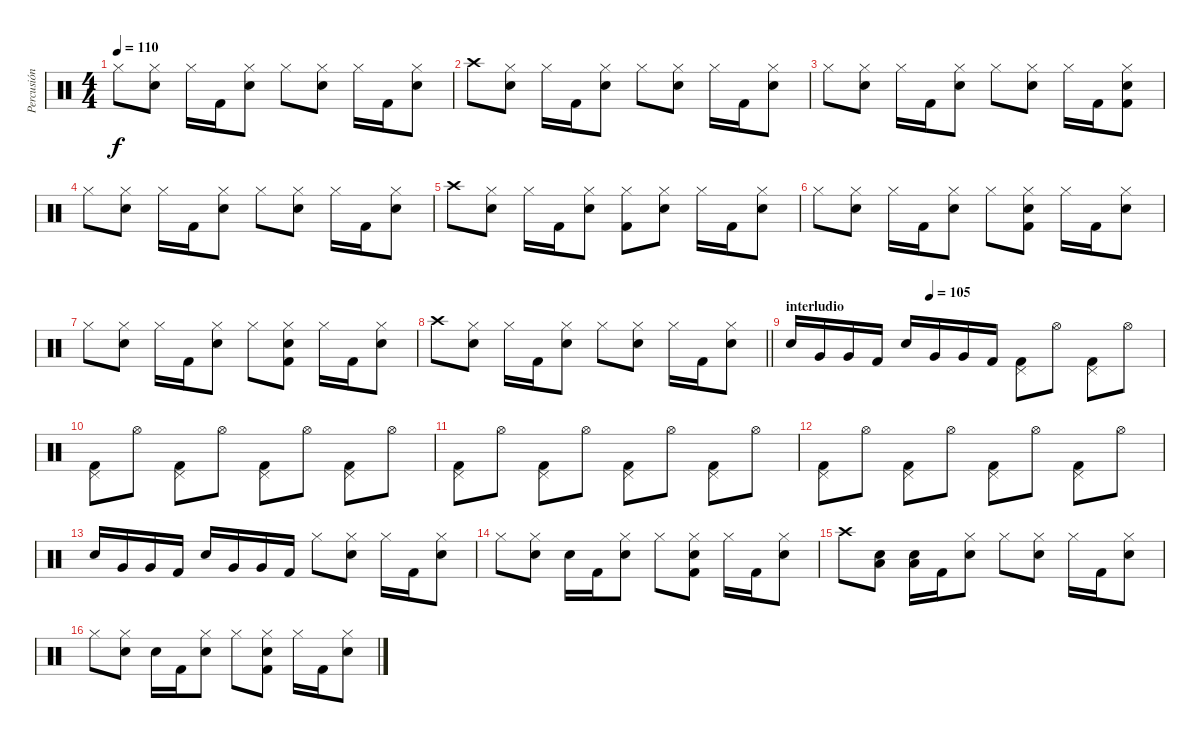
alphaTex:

\track ("Percusión" "Percusión") {instrument percussion}
\staff {score}
\articulation defaults
\ts (4 4)
\tempo 110
\clef neutral
\ks c "Hi-Hat (closed)".8{dy f}
("Hi-Hat (closed)" "Snare (hit) 2").8 "Hi-Hat (closed)".16 "Kick (hit) 2".16 ("Hi-Hat (closed)" "Snare (hit) 2").8 "Hi-Hat (closed)".8 ("Hi-Hat (closed)" "Snare (hit) 2").8 "Hi-Hat (closed)".16 "Kick (hit) 2".16 ("Hi-Hat (closed)" "Snare (hit) 2").8 |
"Crash high (hit)".8 ("Hi-Hat (closed)" "Snare (hit) 2").8 "Hi-Hat (closed)".16 "Kick (hit) 2".16 ("Hi-Hat (closed)" "Snare (hit) 2").8 "Hi-Hat (closed)".8 ("Hi-Hat (closed)" "Snare (hit) 2").8 "Hi-Hat (closed)".16 "Kick (hit) 2".16 ("Hi-Hat (closed)" "Snare (hit) 2").8 |
"Hi-Hat (closed)".8 ("Hi-Hat (closed)" "Snare (hit) 2").8 "Hi-Hat (closed)".16 "Kick (hit) 2".16 ("Hi-Hat (closed)" "Snare (hit) 2").8 "Hi-Hat (closed)".8 ("Hi-Hat (closed)" "Snare (hit) 2").8 "Hi-Hat (closed)".16 "Kick (hit) 2".16 ("Hi-Hat (closed)" "Snare (hit) 2" "Kick (hit) 2").8 |
"Hi-Hat (closed)".8 ("Hi-Hat (closed)" "Snare (hit) 2").8 "Hi-Hat (closed)".16 "Kick (hit) 2".16 ("Hi-Hat (closed)" "Snare (hit) 2").8 "Hi-Hat (closed)".8 ("Hi-Hat (closed)" "Snare (hit) 2").8 "Hi-Hat (closed)".16 "Kick (hit) 2".16 ("Hi-Hat (closed)" "Snare (hit) 2").8 |
"Crash high (hit)".8 ("Hi-Hat (closed)" "Snare (hit) 2").8 "Hi-Hat (closed)".16 "Kick (hit) 2".16 ("Hi-Hat (closed)" "Snare (hit) 2").8 ("Hi-Hat (closed)" "Kick (hit) 2").8 ("Hi-Hat (closed)" "Snare (hit) 2").8 "Hi-Hat (closed)".16 "Kick (hit) 2".16 ("Hi-Hat (closed)" "Snare (hit) 2").8 |
"Hi-Hat (closed)".8 ("Hi-Hat (closed)" "Snare (hit) 2").8 "Hi-Hat (closed)".16 "Kick (hit) 2".16 ("Hi-Hat (closed)" "Snare (hit) 2").8 "Hi-Hat (closed)".8 ("Hi-Hat (closed)" "Snare (hit) 2" "Kick (hit) 2").8 "Hi-Hat (closed)".16 "Kick (hit) 2".16 ("Hi-Hat (closed)" "Snare (hit) 2").8 |
"Hi-Hat (closed)".8 ("Hi-Hat (closed)" "Snare (hit) 2").8 "Hi-Hat (closed)".16 "Kick (hit) 2".16 ("Hi-Hat (closed)" "Snare (hit) 2").8 "Hi-Hat (closed)".8 ("Hi-Hat (closed)" "Snare (hit) 2" "Kick (hit) 2").8 "Hi-Hat (closed)".16 "Kick (hit) 2".16 ("Hi-Hat (closed)" "Snare (hit) 2").8 |
\barLineRight lightlight "Crash high (hit)".8
("Hi-Hat (closed)" "Snare (hit) 2").8 "Hi-Hat (closed)".16 "Kick (hit) 2".16 ("Hi-Hat (closed)" "Snare (hit) 2").8 "Hi-Hat (closed)".8 ("Hi-Hat (closed)" "Snare (hit) 2").8 "Hi-Hat (closed)".16 "Kick (hit) 2".16 ("Hi-Hat (closed)" "Snare (hit) 2").8 |
\section ("" "interludio")
\tempo (105 0.375)
"Snare (hit) 2".16 "Very Low Tom (hit)".16 "Very Low Tom (hit)".16 "Kick (hit) 2".16 "Snare (hit) 2".16 "Very Low Tom (hit)".16 "Very Low Tom (hit)".16 "Kick (hit) 2".16 ("Pedal Hi-Hat (hit)" "Kick (hit) 2").8 "Hi-Hat (open)".8 ("Pedal Hi-Hat (hit)" "Kick (hit) 2").8 "Hi-Hat (open)".8 |
("Pedal Hi-Hat (hit)" "Kick (hit) 2").8 "Hi-Hat (open)".8 ("Pedal Hi-Hat (hit)" "Kick (hit) 2").8 "Hi-Hat (open)".8 ("Pedal Hi-Hat (hit)" "Kick (hit) 2").8 "Hi-Hat (open)".8 ("Pedal Hi-Hat (hit)" "Kick (hit) 2").8 "Hi-Hat (open)".8 |
("Pedal Hi-Hat (hit)" "Kick (hit) 2").8 "Hi-Hat (open)".8 ("Pedal Hi-Hat (hit)" "Kick (hit) 2").8 "Hi-Hat (open)".8 ("Pedal Hi-Hat (hit)" "Kick (hit) 2").8 "Hi-Hat (open)".8 ("Pedal Hi-Hat (hit)" "Kick (hit) 2").8 "Hi-Hat (open)".8 |
("Pedal Hi-Hat (hit)" "Kick (hit) 2").8 "Hi-Hat (open)".8 ("Pedal Hi-Hat (hit)" "Kick (hit) 2").8 "Hi-Hat (open)".8 ("Pedal Hi-Hat (hit)" "Kick (hit) 2").8 "Hi-Hat (open)".8 ("Pedal Hi-Hat (hit)" "Kick (hit) 2").8 "Hi-Hat (open)".8 |
"Snare (hit) 2".16 "Very Low Tom (hit)".16 "Very Low Tom (hit)".16 "Kick (hit) 2".16 "Snare (hit) 2".16 "Very Low Tom (hit)".16 "Very Low Tom (hit)".16 "Kick (hit) 2".16 "Hi-Hat (closed)".8 ("Hi-Hat (closed)" "Snare (hit) 2").8 "Hi-Hat (closed)".16 "Kick (hit) 2".16 ("Hi-Hat (closed)" "Snare (hit) 2").8 |
"Hi-Hat (closed)".8 ("Hi-Hat (closed)" "Snare (hit) 2").8 "Snare (hit) 2".16 "Kick (hit) 2".16 ("Hi-Hat (closed)" "Snare (hit) 2").8 "Hi-Hat (closed)".8 ("Hi-Hat (closed)" "Snare (hit) 2" "Kick (hit) 2").8 "Hi-Hat (closed)".16 "Kick (hit) 2".16 ("Hi-Hat (closed)" "Snare (hit) 2").8 |
"Crash high (hit)".8 ("Low Floor Tom (hit)" "Snare (hit) 2").8 ("Snare (hit) 2" "Low Floor Tom (hit)").16 "Kick (hit) 2".16 ("Hi-Hat (closed)" "Snare (hit) 2").8 "Hi-Hat (closed)".8 ("Hi-Hat (closed)" "Snare (hit) 2").8 "Hi-Hat (closed)".16 "Kick (hit) 2".16 ("Hi-Hat (closed)" "Snare (hit) 2").8 |
"Hi-Hat (closed)".8 ("Hi-Hat (closed)" "Snare (hit) 2").8 "Snare (hit) 2".16 "Kick (hit) 2".16 ("Hi-Hat (closed)" "Snare (hit) 2").8 "Hi-Hat (closed)".8 ("Hi-Hat (closed)" "Snare (hit) 2" "Kick (hit) 2").8 "Hi-Hat (closed)".16 "Kick (hit) 2".16 ("Hi-Hat (closed)" "Snare (hit) 2").8
